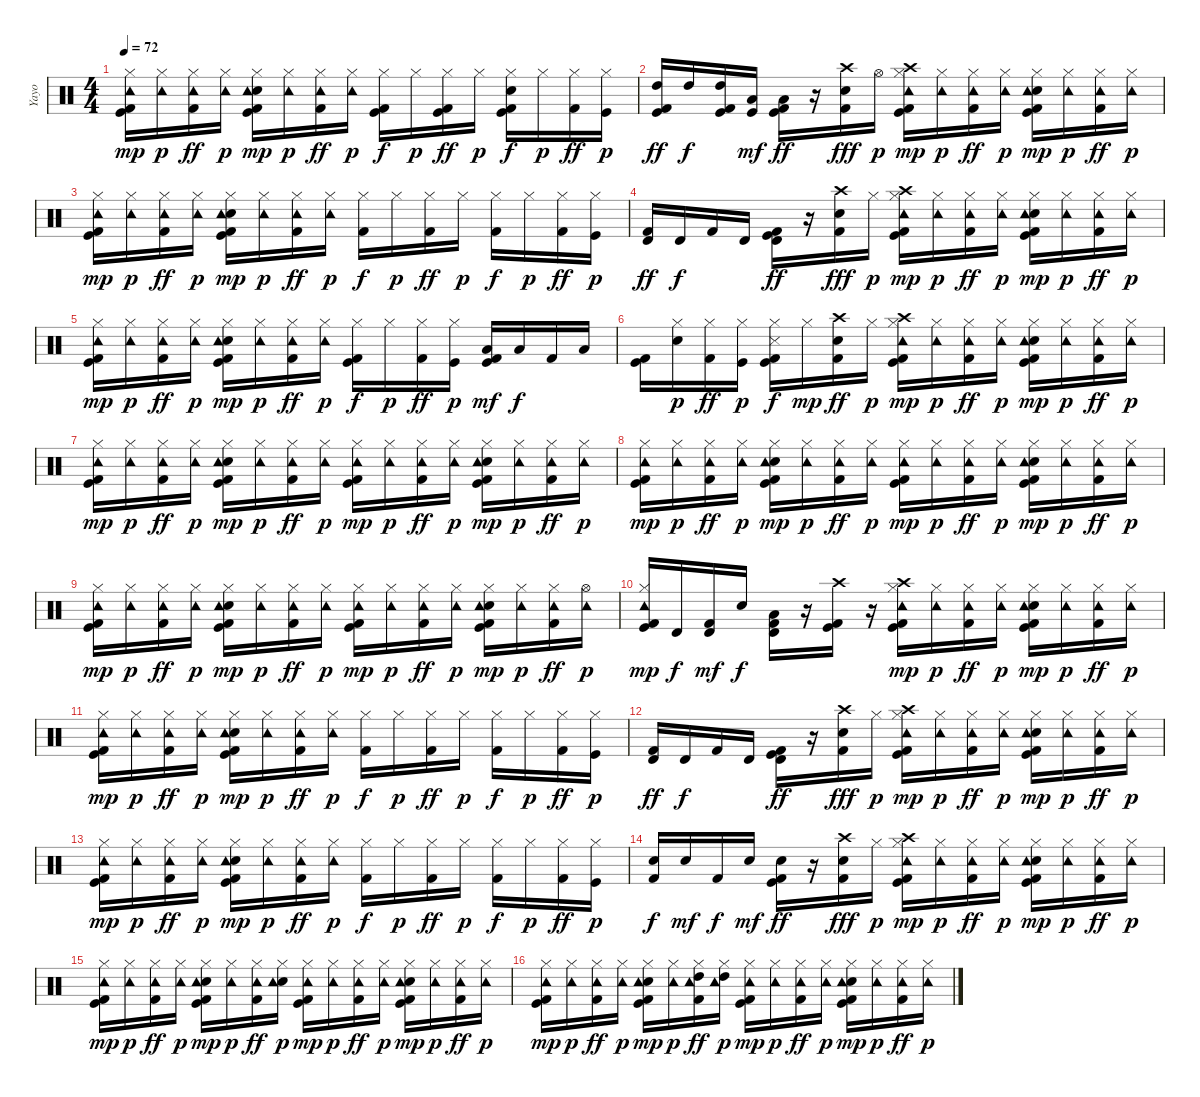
\track ("Yayo" "Yayo") {instrument percussion}
\staff {score}
\articulation defaults
\ts (4 4)
\tempo 72
\clef neutral
\ks c
("Kick (hit)" "Hi-Hat (closed)" "Tambourine (hit)" "Kick (hit) 2").16{dy mp} ("Hi-Hat (closed)" "Tambourine (hit)").16{dy p} ("Hi-Hat (closed)" "Tambourine (hit)" "Kick (hit) 2").16{dy ff} ("Hi-Hat (closed)" "Tambourine (hit)").16{dy p} ("Kick (hit)" "Snare (hit) 2" "Hi-Hat (closed)" "Tambourine (hit)" "Kick (hit) 2").16{dy mp} ("Hi-Hat (closed)" "Tambourine (hit)").16{dy p} ("Hi-Hat (closed)" "Tambourine (hit)" "Kick (hit) 2").16{dy ff} ("Hi-Hat (closed)" "Tambourine (hit)").16{dy p} ("Kick (hit)" "Hi-Hat (closed)" "Kick (hit) 2").16{dy f} "Hi-Hat (closed)".16{dy p} ("Kick (hit)" "Hi-Hat (closed)" "Kick (hit) 2").16{dy ff} "Hi-Hat (closed)".16{dy p} ("Kick (hit)" "Snare (hit) 2" "Hi-Hat (closed)" "Kick (hit) 2").16{dy f} "Hi-Hat (closed)".16{dy p} ("Hi-Hat (closed)" "Kick (hit) 2").16{dy ff} ("Kick (hit)" "Hi-Hat (closed)").16{dy p} |
("Kick (hit)" "High Tom (hit)" "Kick (hit) 2").16{dy ff} "High Tom (hit)".16{dy f} ("Kick (hit)" "High Tom (hit)" "Kick (hit) 2").16 ("Kick (hit)" "Low Tom (hit)").16{dy mf} ("Kick (hit)" "Low Tom (hit)" "Kick (hit) 2").16{dy ff} r.16 ("Snare (hit) 2" "Crash high (hit)" "Kick (hit) 2").16{dy fff} "Hi-Hat (open)".16{dy p} ("Kick (hit)" "Hi-Hat (closed)" "Crash high (hit)" "Tambourine (hit)" "Kick (hit) 2").16{dy mp} ("Hi-Hat (closed)" "Tambourine (hit)").16{dy p} ("Hi-Hat (closed)" "Tambourine (hit)" "Kick (hit) 2").16{dy ff} ("Hi-Hat (closed)" "Tambourine (hit)").16{dy p} ("Kick (hit)" "Snare (hit) 2" "Hi-Hat (closed)" "Tambourine (hit)" "Kick (hit) 2").16{dy mp} ("Hi-Hat (closed)" "Tambourine (hit)").16{dy p} ("Hi-Hat (closed)" "Tambourine (hit)" "Kick (hit) 2").16{dy ff} ("Hi-Hat (closed)" "Tambourine (hit)").16{dy p} |
("Kick (hit)" "Hi-Hat (closed)" "Tambourine (hit)" "Kick (hit) 2").16{dy mp} ("Hi-Hat (closed)" "Tambourine (hit)").16{dy p} ("Hi-Hat (closed)" "Tambourine (hit)" "Kick (hit) 2").16{dy ff} ("Hi-Hat (closed)" "Tambourine (hit)").16{dy p} ("Kick (hit)" "Snare (hit) 2" "Hi-Hat (closed)" "Tambourine (hit)" "Kick (hit) 2").16{dy mp} ("Hi-Hat (closed)" "Tambourine (hit)").16{dy p} ("Hi-Hat (closed)" "Tambourine (hit)" "Kick (hit) 2").16{dy ff} ("Hi-Hat (closed)" "Tambourine (hit)").16{dy p} ("Hi-Hat (closed)" "Kick (hit) 2").16{dy f} "Hi-Hat (closed)".16{dy p} ("Hi-Hat (closed)" "Kick (hit) 2").16{dy ff} "Hi-Hat (closed)".16{dy p} ("Hi-Hat (closed)" "Kick (hit) 2").16{dy f} "Hi-Hat (closed)".16{dy p} ("Hi-Hat (closed)" "Kick (hit) 2").16{dy ff} ("Kick (hit)" "Hi-Hat (closed)").16{dy p} |
("Timbale high (hit)" "Kick (hit) 2").16{dy ff} "Timbale high (hit)".16{dy f} "Kick (hit) 2".16 "Timbale high (hit)".16 ("Kick (hit)" "Timbale high (hit)" "Kick (hit) 2").16{dy ff} r.16 ("Snare (hit) 2" "Crash high (hit)" "Kick (hit) 2").16{dy fff} "Hi-Hat (closed)".16{dy p} ("Kick (hit)" "Hi-Hat (closed)" "Crash high (hit)" "Tambourine (hit)" "Kick (hit) 2").16{dy mp} ("Hi-Hat (closed)" "Tambourine (hit)").16{dy p} ("Hi-Hat (closed)" "Tambourine (hit)" "Kick (hit) 2").16{dy ff} ("Hi-Hat (closed)" "Tambourine (hit)").16{dy p} ("Kick (hit)" "Snare (hit) 2" "Hi-Hat (closed)" "Tambourine (hit)" "Kick (hit) 2").16{dy mp} ("Hi-Hat (closed)" "Tambourine (hit)").16{dy p} ("Hi-Hat (closed)" "Tambourine (hit)" "Kick (hit) 2").16{dy ff} ("Hi-Hat (closed)" "Tambourine (hit)").16{dy p} |
("Kick (hit)" "Hi-Hat (closed)" "Tambourine (hit)" "Kick (hit) 2").16{dy mp} ("Hi-Hat (closed)" "Tambourine (hit)").16{dy p} ("Hi-Hat (closed)" "Tambourine (hit)" "Kick (hit) 2").16{dy ff} ("Hi-Hat (closed)" "Tambourine (hit)").16{dy p} ("Kick (hit)" "Snare (hit) 2" "Hi-Hat (closed)" "Tambourine (hit)" "Kick (hit) 2").16{dy mp} ("Hi-Hat (closed)" "Tambourine (hit)").16{dy p} ("Hi-Hat (closed)" "Tambourine (hit)" "Kick (hit) 2").16{dy ff} ("Hi-Hat (closed)" "Tambourine (hit)").16{dy p} ("Kick (hit)" "Hi-Hat (closed)" "Kick (hit) 2").16{dy f} "Hi-Hat (closed)".16{dy p} ("Hi-Hat (closed)" "Kick (hit) 2").16{dy ff} ("Kick (hit)" "Hi-Hat (closed)").16{dy p} ("Kick (hit)" "Low Floor Tom (hit)" "Kick (hit) 2").16{dy mf} "Low Floor Tom (hit)".16{dy f} "Kick (hit) 2".16 "Low Floor Tom (hit)".16 |
("Kick (hit)" "Kick (hit) 2").16 ("Snare (hit) 2" "Hi-Hat (closed)").16{dy p} ("Hi-Hat (closed)" "Kick (hit) 2").16{dy ff} ("Kick (hit)" "Hi-Hat (closed)").16{dy p} ("Kick (hit)" "Hi-Hat (closed)" "Snare (side stick) 3" "Kick (hit) 2").16{dy f} "Hi-Hat (closed)".16{dy mp} ("Snare (hit) 2" "Crash high (hit)" "Kick (hit) 2").16{dy ff} "Hi-Hat (closed)".16{dy p} ("Kick (hit)" "Hi-Hat (closed)" "Crash high (hit)" "Tambourine (hit)" "Kick (hit) 2").16{dy mp} ("Hi-Hat (closed)" "Tambourine (hit)").16{dy p} ("Hi-Hat (closed)" "Tambourine (hit)" "Kick (hit) 2").16{dy ff} ("Hi-Hat (closed)" "Tambourine (hit)").16{dy p} ("Kick (hit)" "Snare (hit) 2" "Hi-Hat (closed)" "Tambourine (hit)" "Kick (hit) 2").16{dy mp} ("Hi-Hat (closed)" "Tambourine (hit)").16{dy p} ("Hi-Hat (closed)" "Tambourine (hit)" "Kick (hit) 2").16{dy ff} ("Hi-Hat (closed)" "Tambourine (hit)").16{dy p} |
("Kick (hit)" "Hi-Hat (closed)" "Tambourine (hit)" "Kick (hit) 2").16{dy mp} ("Hi-Hat (closed)" "Tambourine (hit)").16{dy p} ("Hi-Hat (closed)" "Tambourine (hit)" "Kick (hit) 2").16{dy ff} ("Hi-Hat (closed)" "Tambourine (hit)").16{dy p} ("Kick (hit)" "Snare (hit) 2" "Hi-Hat (closed)" "Tambourine (hit)" "Kick (hit) 2").16{dy mp} ("Hi-Hat (closed)" "Tambourine (hit)").16{dy p} ("Hi-Hat (closed)" "Tambourine (hit)" "Kick (hit) 2").16{dy ff} ("Hi-Hat (closed)" "Tambourine (hit)").16{dy p} ("Kick (hit)" "Hi-Hat (closed)" "Tambourine (hit)" "Kick (hit) 2").16{dy mp} ("Hi-Hat (closed)" "Tambourine (hit)").16{dy p} ("Hi-Hat (closed)" "Tambourine (hit)" "Kick (hit) 2").16{dy ff} ("Hi-Hat (closed)" "Tambourine (hit)").16{dy p} ("Kick (hit)" "Snare (hit) 2" "Hi-Hat (closed)" "Tambourine (hit)" "Kick (hit) 2").16{dy mp} ("Hi-Hat (closed)" "Tambourine (hit)").16{dy p} ("Hi-Hat (closed)" "Tambourine (hit)" "Kick (hit) 2").16{dy ff} ("Hi-Hat (closed)" "Tambourine (hit)").16{dy p} |
("Kick (hit)" "Hi-Hat (closed)" "Tambourine (hit)" "Kick (hit) 2").16{dy mp} ("Hi-Hat (closed)" "Tambourine (hit)").16{dy p} ("Hi-Hat (closed)" "Tambourine (hit)" "Kick (hit) 2").16{dy ff} ("Hi-Hat (closed)" "Tambourine (hit)").16{dy p} ("Kick (hit)" "Snare (hit) 2" "Hi-Hat (closed)" "Tambourine (hit)" "Kick (hit) 2").16{dy mp} ("Hi-Hat (closed)" "Tambourine (hit)").16{dy p} ("Hi-Hat (closed)" "Tambourine (hit)" "Kick (hit) 2").16{dy ff} ("Hi-Hat (closed)" "Tambourine (hit)").16{dy p} ("Kick (hit)" "Hi-Hat (closed)" "Tambourine (hit)" "Kick (hit) 2").16{dy mp} ("Hi-Hat (closed)" "Tambourine (hit)").16{dy p} ("Hi-Hat (closed)" "Tambourine (hit)" "Kick (hit) 2").16{dy ff} ("Hi-Hat (closed)" "Tambourine (hit)").16{dy p} ("Kick (hit)" "Snare (hit) 2" "Hi-Hat (closed)" "Tambourine (hit)" "Kick (hit) 2").16{dy mp} ("Hi-Hat (closed)" "Tambourine (hit)").16{dy p} ("Hi-Hat (closed)" "Tambourine (hit)" "Kick (hit) 2").16{dy ff} ("Hi-Hat (closed)" "Tambourine (hit)").16{dy p} |
("Kick (hit)" "Hi-Hat (closed)" "Tambourine (hit)" "Kick (hit) 2").16{dy mp} ("Hi-Hat (closed)" "Tambourine (hit)").16{dy p} ("Hi-Hat (closed)" "Tambourine (hit)" "Kick (hit) 2").16{dy ff} ("Hi-Hat (closed)" "Tambourine (hit)").16{dy p} ("Kick (hit)" "Snare (hit) 2" "Hi-Hat (closed)" "Tambourine (hit)" "Kick (hit) 2").16{dy mp} ("Hi-Hat (closed)" "Tambourine (hit)").16{dy p} ("Hi-Hat (closed)" "Tambourine (hit)" "Kick (hit) 2").16{dy ff} ("Hi-Hat (closed)" "Tambourine (hit)").16{dy p} ("Kick (hit)" "Hi-Hat (closed)" "Tambourine (hit)" "Kick (hit) 2").16{dy mp} ("Hi-Hat (closed)" "Tambourine (hit)").16{dy p} ("Hi-Hat (closed)" "Tambourine (hit)" "Kick (hit) 2").16{dy ff} ("Hi-Hat (closed)" "Tambourine (hit)").16{dy p} ("Kick (hit)" "Snare (hit) 2" "Hi-Hat (closed)" "Tambourine (hit)" "Kick (hit) 2").16{dy mp} ("Hi-Hat (closed)" "Tambourine (hit)").16{dy p} ("Hi-Hat (closed)" "Tambourine (hit)" "Kick (hit) 2").16{dy ff} ("Hi-Hat (open)" "Tambourine (hit)").16{dy p} |
("Kick (hit)" "Hi-Hat (closed)" "Tambourine (hit)" "Kick (hit) 2").16{dy mp} "Timbale high (hit)".16{dy f} ("Timbale high (hit)" "Kick (hit) 2").16{dy mf} "Snare (hit) 2".16{dy f} ("Low Floor Tom (hit)" "Timbale high (hit)" "Kick (hit) 2").16 r.16 ("Kick (hit)" "Crash high (hit)" "Kick (hit) 2").16 r.16 ("Kick (hit)" "Hi-Hat (closed)" "Crash high (hit)" "Tambourine (hit)" "Kick (hit) 2").16{dy mp} ("Hi-Hat (closed)" "Tambourine (hit)").16{dy p} ("Hi-Hat (closed)" "Tambourine (hit)" "Kick (hit) 2").16{dy ff} ("Hi-Hat (closed)" "Tambourine (hit)").16{dy p} ("Kick (hit)" "Snare (hit) 2" "Hi-Hat (closed)" "Tambourine (hit)" "Kick (hit) 2").16{dy mp} ("Hi-Hat (closed)" "Tambourine (hit)").16{dy p} ("Hi-Hat (closed)" "Tambourine (hit)" "Kick (hit) 2").16{dy ff} ("Hi-Hat (closed)" "Tambourine (hit)").16{dy p} |
("Kick (hit)" "Hi-Hat (closed)" "Tambourine (hit)" "Kick (hit) 2").16{dy mp} ("Hi-Hat (closed)" "Tambourine (hit)").16{dy p} ("Hi-Hat (closed)" "Tambourine (hit)" "Kick (hit) 2").16{dy ff} ("Hi-Hat (closed)" "Tambourine (hit)").16{dy p} ("Kick (hit)" "Snare (hit) 2" "Hi-Hat (closed)" "Tambourine (hit)" "Kick (hit) 2").16{dy mp} ("Hi-Hat (closed)" "Tambourine (hit)").16{dy p} ("Hi-Hat (closed)" "Tambourine (hit)" "Kick (hit) 2").16{dy ff} ("Hi-Hat (closed)" "Tambourine (hit)").16{dy p} ("Hi-Hat (closed)" "Kick (hit) 2").16{dy f} "Hi-Hat (closed)".16{dy p} ("Hi-Hat (closed)" "Kick (hit) 2").16{dy ff} "Hi-Hat (closed)".16{dy p} ("Hi-Hat (closed)" "Kick (hit) 2").16{dy f} "Hi-Hat (closed)".16{dy p} ("Hi-Hat (closed)" "Kick (hit) 2").16{dy ff} ("Kick (hit)" "Hi-Hat (closed)").16{dy p} |
("Timbale high (hit)" "Kick (hit) 2").16{dy ff} "Timbale high (hit)".16{dy f} "Kick (hit) 2".16 "Timbale high (hit)".16 ("Kick (hit)" "Timbale high (hit)" "Kick (hit) 2").16{dy ff} r.16 ("Snare (hit) 2" "Crash high (hit)" "Kick (hit) 2").16{dy fff} "Hi-Hat (closed)".16{dy p} ("Kick (hit)" "Hi-Hat (closed)" "Crash high (hit)" "Tambourine (hit)" "Kick (hit) 2").16{dy mp} ("Hi-Hat (closed)" "Tambourine (hit)").16{dy p} ("Hi-Hat (closed)" "Tambourine (hit)" "Kick (hit) 2").16{dy ff} ("Hi-Hat (closed)" "Tambourine (hit)").16{dy p} ("Kick (hit)" "Snare (hit) 2" "Hi-Hat (closed)" "Tambourine (hit)" "Kick (hit) 2").16{dy mp} ("Hi-Hat (closed)" "Tambourine (hit)").16{dy p} ("Hi-Hat (closed)" "Tambourine (hit)" "Kick (hit) 2").16{dy ff} ("Hi-Hat (closed)" "Tambourine (hit)").16{dy p} |
("Kick (hit)" "Hi-Hat (closed)" "Tambourine (hit)" "Kick (hit) 2").16{dy mp} ("Hi-Hat (closed)" "Tambourine (hit)").16{dy p} ("Hi-Hat (closed)" "Tambourine (hit)" "Kick (hit) 2").16{dy ff} ("Hi-Hat (closed)" "Tambourine (hit)").16{dy p} ("Kick (hit)" "Snare (hit) 2" "Hi-Hat (closed)" "Tambourine (hit)" "Kick (hit) 2").16{dy mp} ("Hi-Hat (closed)" "Tambourine (hit)").16{dy p} ("Hi-Hat (closed)" "Tambourine (hit)" "Kick (hit) 2").16{dy ff} ("Hi-Hat (closed)" "Tambourine (hit)").16{dy p} ("Hi-Hat (closed)" "Kick (hit) 2").16{dy f} "Hi-Hat (closed)".16{dy p} ("Hi-Hat (closed)" "Kick (hit) 2").16{dy ff} "Hi-Hat (closed)".16{dy p} ("Hi-Hat (closed)" "Kick (hit) 2").16{dy f} "Hi-Hat (closed)".16{dy p} ("Hi-Hat (closed)" "Kick (hit) 2").16{dy ff} ("Kick (hit)" "Hi-Hat (closed)").16{dy p} |
("Snare (hit) 2" "Kick (hit) 2").16{dy f} "Snare (hit) 2".16{dy mf} "Kick (hit) 2".16{dy f} "Snare (hit) 2".16{dy mf} ("Kick (hit)" "Snare (hit) 2" "Kick (hit) 2").16{dy ff} r.16 ("Snare (hit) 2" "Crash high (hit)" "Kick (hit) 2").16{dy fff} "Hi-Hat (closed)".16{dy p} ("Kick (hit)" "Hi-Hat (closed)" "Crash high (hit)" "Tambourine (hit)" "Kick (hit) 2").16{dy mp} ("Hi-Hat (closed)" "Tambourine (hit)").16{dy p} ("Hi-Hat (closed)" "Tambourine (hit)" "Kick (hit) 2").16{dy ff} ("Hi-Hat (closed)" "Tambourine (hit)").16{dy p} ("Kick (hit)" "Snare (hit) 2" "Hi-Hat (closed)" "Tambourine (hit)" "Kick (hit) 2").16{dy mp} ("Hi-Hat (closed)" "Tambourine (hit)").16{dy p} ("Hi-Hat (closed)" "Tambourine (hit)" "Kick (hit) 2").16{dy ff} ("Hi-Hat (closed)" "Tambourine (hit)").16{dy p} |
("Kick (hit)" "Hi-Hat (closed)" "Tambourine (hit)" "Kick (hit) 2").16{dy mp} ("Hi-Hat (closed)" "Tambourine (hit)").16{dy p} ("Hi-Hat (closed)" "Tambourine (hit)" "Kick (hit) 2").16{dy ff} ("Hi-Hat (closed)" "Tambourine (hit)").16{dy p} ("Kick (hit)" "Snare (hit) 2" "Hi-Hat (closed)" "Tambourine (hit)" "Kick (hit) 2").16{dy mp} ("Hi-Hat (closed)" "Tambourine (hit)").16{dy p} ("Hi-Hat (closed)" "Tambourine (hit)" "Kick (hit) 2").16{dy ff} ("Snare (hit) 2" "Hi-Hat (closed)" "Tambourine (hit)").16{dy p} ("Kick (hit)" "Hi-Hat (closed)" "Tambourine (hit)" "Kick (hit) 2").16{dy mp} ("Hi-Hat (closed)" "Tambourine (hit)").16{dy p} ("Hi-Hat (closed)" "Tambourine (hit)" "Kick (hit) 2").16{dy ff} ("Hi-Hat (closed)" "Tambourine (hit)").16{dy p} ("Kick (hit)" "Snare (hit) 2" "Hi-Hat (closed)" "Tambourine (hit)" "Kick (hit) 2").16{dy mp} ("Hi-Hat (closed)" "Tambourine (hit)").16{dy p} ("Hi-Hat (closed)" "Tambourine (hit)" "Kick (hit) 2").16{dy ff} ("Hi-Hat (closed)" "Tambourine (hit)").16{dy p} |
("Kick (hit)" "Hi-Hat (closed)" "Tambourine (hit)" "Kick (hit) 2").16{dy mp} ("Hi-Hat (closed)" "Tambourine (hit)").16{dy p} ("Hi-Hat (closed)" "Tambourine (hit)" "Kick (hit) 2").16{dy ff} ("Hi-Hat (closed)" "Tambourine (hit)").16{dy p} ("Kick (hit)" "Snare (hit) 2" "Hi-Hat (closed)" "Tambourine (hit)" "Kick (hit) 2").16{dy mp} ("Hi-Hat (closed)" "Tambourine (hit)").16{dy p} ("Hi-Hat (closed)" "High Tom (hit)" "Tambourine (hit)" "Kick (hit) 2").16{dy ff} ("Hi-Hat (closed)" "High Tom (hit)" "Tambourine (hit)").16{dy p} ("Kick (hit)" "Hi-Hat (closed)" "Tambourine (hit)" "Kick (hit) 2").16{dy mp} ("Hi-Hat (closed)" "Tambourine (hit)").16{dy p} ("Hi-Hat (closed)" "Tambourine (hit)" "Kick (hit) 2").16{dy ff} ("Hi-Hat (closed)" "Tambourine (hit)").16{dy p} ("Kick (hit)" "Snare (hit) 2" "Hi-Hat (closed)" "Tambourine (hit)" "Kick (hit) 2").16{dy mp} ("Hi-Hat (closed)" "Tambourine (hit)").16{dy p} ("Hi-Hat (closed)" "Tambourine (hit)" "Kick (hit) 2").16{dy ff} ("Hi-Hat (closed)" "Tambourine (hit)").16{dy p}
